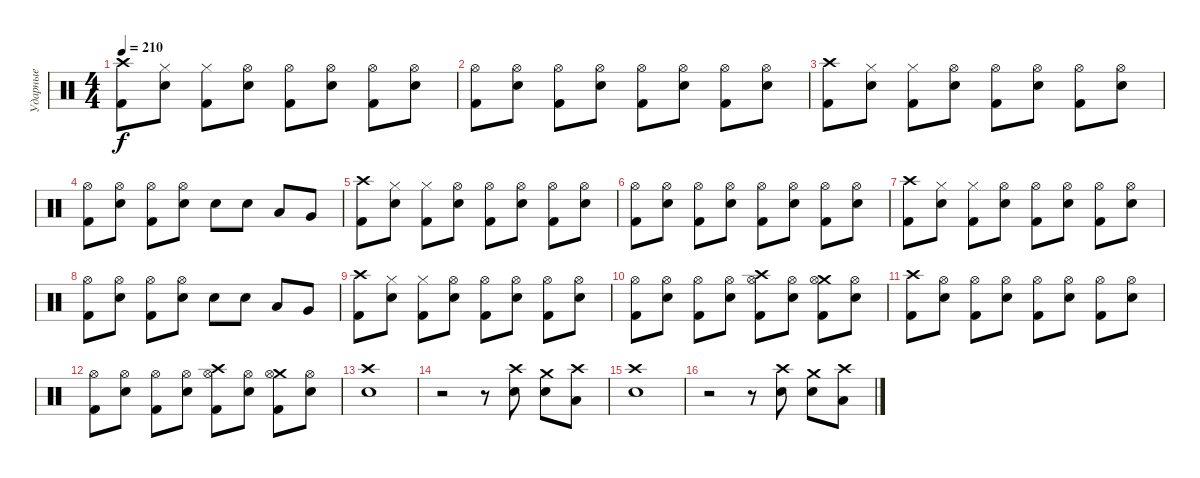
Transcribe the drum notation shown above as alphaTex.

\track ("Ударные" "Ударные") {instrument percussion}
\staff {score}
\articulation defaults
\ts (4 4)
\tempo 210
\clef neutral
\ks c
("Crash high (hit)" "Kick (hit) 2").8{dy f} ("Hi-Hat (closed)" "Snare (hit) 2").8 ("Hi-Hat (closed)" "Kick (hit) 2").8 ("Hi-Hat (open)" "Snare (hit) 2").8 ("Hi-Hat (open)" "Kick (hit) 2").8 ("Hi-Hat (open)" "Snare (hit) 2").8 ("Hi-Hat (open)" "Kick (hit) 2").8 ("Hi-Hat (open)" "Snare (hit) 2").8 |
("Hi-Hat (open)" "Kick (hit) 2").8 ("Hi-Hat (open)" "Snare (hit) 2").8 ("Hi-Hat (open)" "Kick (hit) 2").8 ("Hi-Hat (open)" "Snare (hit) 2").8 ("Hi-Hat (open)" "Kick (hit) 2").8 ("Hi-Hat (open)" "Snare (hit) 2").8 ("Hi-Hat (open)" "Kick (hit) 2").8 ("Hi-Hat (open)" "Snare (hit) 2").8 |
("Crash high (hit)" "Kick (hit) 2").8 ("Hi-Hat (closed)" "Snare (hit) 2").8 ("Hi-Hat (closed)" "Kick (hit) 2").8 ("Hi-Hat (open)" "Snare (hit) 2").8 ("Hi-Hat (open)" "Kick (hit) 2").8 ("Hi-Hat (open)" "Snare (hit) 2").8 ("Hi-Hat (open)" "Kick (hit) 2").8 ("Hi-Hat (open)" "Snare (hit) 2").8 |
("Hi-Hat (open)" "Kick (hit) 2").8 ("Hi-Hat (open)" "Snare (hit) 2").8 ("Hi-Hat (open)" "Kick (hit) 2").8 ("Hi-Hat (open)" "Snare (hit) 2").8 "Snare (hit) 2".8 "Electric Snare (hit)".8 "Low Tom (hit)".8 "Very Low Tom (hit)".8 |
("Crash high (hit)" "Kick (hit) 2").8 ("Hi-Hat (closed)" "Snare (hit) 2").8 ("Hi-Hat (closed)" "Kick (hit) 2").8 ("Hi-Hat (open)" "Snare (hit) 2").8 ("Hi-Hat (open)" "Kick (hit) 2").8 ("Hi-Hat (open)" "Snare (hit) 2").8 ("Hi-Hat (open)" "Kick (hit) 2").8 ("Hi-Hat (open)" "Snare (hit) 2").8 |
("Hi-Hat (open)" "Kick (hit) 2").8 ("Hi-Hat (open)" "Snare (hit) 2").8 ("Hi-Hat (open)" "Kick (hit) 2").8 ("Hi-Hat (open)" "Snare (hit) 2").8 ("Hi-Hat (open)" "Kick (hit) 2").8 ("Hi-Hat (open)" "Snare (hit) 2").8 ("Hi-Hat (open)" "Kick (hit) 2").8 ("Hi-Hat (open)" "Snare (hit) 2").8 |
("Crash high (hit)" "Kick (hit) 2").8 ("Hi-Hat (closed)" "Snare (hit) 2").8 ("Hi-Hat (closed)" "Kick (hit) 2").8 ("Hi-Hat (open)" "Snare (hit) 2").8 ("Hi-Hat (open)" "Kick (hit) 2").8 ("Hi-Hat (open)" "Snare (hit) 2").8 ("Hi-Hat (open)" "Kick (hit) 2").8 ("Hi-Hat (open)" "Snare (hit) 2").8 |
("Hi-Hat (open)" "Kick (hit) 2").8 ("Hi-Hat (open)" "Snare (hit) 2").8 ("Hi-Hat (open)" "Kick (hit) 2").8 ("Hi-Hat (open)" "Snare (hit) 2").8 "Snare (hit) 2".8 "Electric Snare (hit)".8 "Low Tom (hit)".8 "Very Low Tom (hit)".8 |
("Crash high (hit)" "Kick (hit) 2").8 ("Hi-Hat (closed)" "Snare (hit) 2").8 ("Hi-Hat (closed)" "Kick (hit) 2").8 ("Hi-Hat (open)" "Snare (hit) 2").8 ("Hi-Hat (open)" "Kick (hit) 2").8 ("Hi-Hat (open)" "Snare (hit) 2").8 ("Hi-Hat (open)" "Kick (hit) 2").8 ("Hi-Hat (open)" "Snare (hit) 2").8 |
("Hi-Hat (open)" "Kick (hit) 2").8 ("Hi-Hat (open)" "Snare (hit) 2").8 ("Hi-Hat (open)" "Kick (hit) 2").8 ("Hi-Hat (open)" "Snare (hit) 2").8 ("Crash high (hit)" "Hi-Hat (open)" "Kick (hit) 2").8 ("Hi-Hat (open)" "Snare (hit) 2").8 ("Crash medium (hit)" "Hi-Hat (open)" "Kick (hit) 2").8 ("Hi-Hat (open)" "Snare (hit) 2").8 |
("Crash high (hit)" "Kick (hit) 2").8 ("Hi-Hat (open)" "Snare (hit) 2").8 ("Hi-Hat (open)" "Kick (hit) 2").8 ("Hi-Hat (open)" "Snare (hit) 2").8 ("Hi-Hat (open)" "Kick (hit) 2").8 ("Hi-Hat (open)" "Snare (hit) 2").8 ("Hi-Hat (open)" "Kick (hit) 2").8 ("Hi-Hat (open)" "Snare (hit) 2").8 |
("Hi-Hat (open)" "Kick (hit) 2").8 ("Hi-Hat (open)" "Snare (hit) 2").8 ("Hi-Hat (open)" "Kick (hit) 2").8 ("Hi-Hat (open)" "Snare (hit) 2").8 ("Crash high (hit)" "Hi-Hat (open)" "Kick (hit) 2").8 ("Hi-Hat (open)" "Snare (hit) 2").8 ("Crash medium (hit)" "Hi-Hat (open)" "Kick (hit) 2").8 ("Hi-Hat (open)" "Snare (hit) 2").8 |
("Crash high (hit)" "Snare (hit) 2").1 |
r.2 r.8 ("Crash high (hit)" "Snare (hit) 2").8 ("Crash medium (hit)" "Electric Snare (hit)").8 ("Crash high (hit)" "Low Tom (hit)").8 |
("Crash high (hit)" "Snare (hit) 2").1 |
r.2 r.8 ("Crash high (hit)" "Snare (hit) 2").8 ("Crash medium (hit)" "Electric Snare (hit)").8 ("Crash high (hit)" "Low Tom (hit)").8
